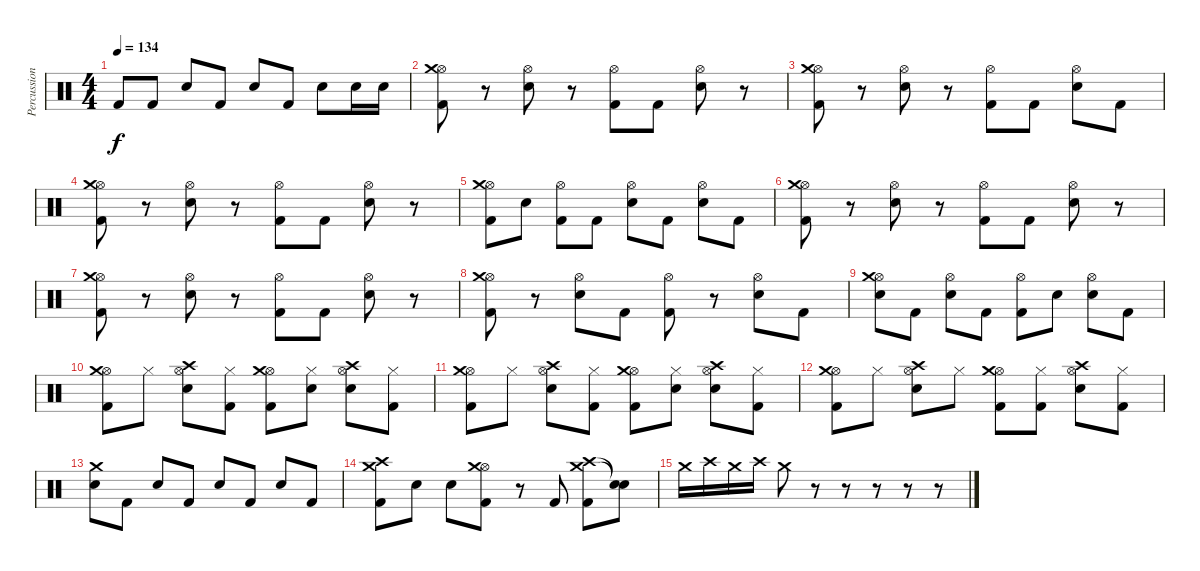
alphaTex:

\track ("Percussion" "Percussion") {instrument percussion}
\staff {score}
\articulation defaults
\ts (4 4)
\tempo 134
\clef neutral
\ks c "Kick (hit) 2".8{dy f} "Kick (hit) 2".8 "Snare (hit) 2".8 "Kick (hit) 2".8 "Snare (hit) 2".8 "Kick (hit) 2".8 "Snare (hit) 2".8 "Snare (hit) 2".16 "Snare (hit) 2".16
|
("Hi-Hat (open)" "Crash medium (hit)" "Kick (hit) 2").8 r.8 ("Hi-Hat (open)" "Snare (hit) 2").8 r.8 ("Hi-Hat (open)" "Kick (hit) 2").8 "Kick (hit) 2".8 ("Hi-Hat (open)" "Snare (hit) 2").8 r.8 |
("Hi-Hat (open)" "Crash medium (hit)" "Kick (hit) 2").8 r.8 ("Hi-Hat (open)" "Snare (hit) 2").8 r.8 ("Hi-Hat (open)" "Kick (hit) 2").8 "Kick (hit) 2".8 ("Hi-Hat (open)" "Snare (hit) 2").8 "Kick (hit) 2".8 |
("Hi-Hat (open)" "Crash medium (hit)" "Kick (hit) 2").8 r.8 ("Hi-Hat (open)" "Snare (hit) 2").8 r.8 ("Hi-Hat (open)" "Kick (hit) 2").8 "Kick (hit) 2".8 ("Hi-Hat (open)" "Snare (hit) 2").8 r.8 |
("Hi-Hat (open)" "Crash medium (hit)" "Kick (hit) 2").8 "Snare (hit) 2".8 ("Hi-Hat (open)" "Kick (hit) 2").8 "Kick (hit) 2".8 ("Hi-Hat (open)" "Snare (hit) 2").8 "Kick (hit) 2".8 ("Hi-Hat (open)" "Snare (hit) 2").8 "Kick (hit) 2".8 |
("Hi-Hat (open)" "Crash medium (hit)" "Kick (hit) 2").8 r.8 ("Hi-Hat (open)" "Snare (hit) 2").8 r.8 ("Hi-Hat (open)" "Kick (hit) 2").8 "Kick (hit) 2".8 ("Hi-Hat (open)" "Snare (hit) 2").8 r.8 |
("Hi-Hat (open)" "Crash medium (hit)" "Kick (hit) 2").8 r.8 ("Hi-Hat (open)" "Snare (hit) 2").8 r.8 ("Hi-Hat (open)" "Kick (hit) 2").8 "Kick (hit) 2".8 ("Hi-Hat (open)" "Snare (hit) 2").8 r.8 |
("Hi-Hat (open)" "Crash medium (hit)" "Kick (hit) 2").8 r.8 ("Hi-Hat (open)" "Snare (hit) 2").8 "Kick (hit) 2".8 ("Hi-Hat (open)" "Kick (hit) 2").8 r.8 ("Hi-Hat (open)" "Snare (hit) 2").8 "Kick (hit) 2".8 |
("Hi-Hat (open)" "Crash medium (hit)" "Snare (hit) 2").8 "Kick (hit) 2".8 ("Hi-Hat (open)" "Snare (hit) 2").8 "Kick (hit) 2".8 ("Hi-Hat (open)" "Kick (hit) 2").8 "Snare (hit) 2".8 ("Hi-Hat (open)" "Snare (hit) 2").8 "Kick (hit) 2".8 |
("Hi-Hat (open)" "Crash medium (hit)" "Kick (hit) 2").8 "Hi-Hat (closed)".8 ("Hi-Hat (open)" "Crash high (hit)" "Snare (hit) 2").8 ("Hi-Hat (closed)" "Kick (hit) 2").8 ("Hi-Hat (open)" "Crash medium (hit)" "Kick (hit) 2").8 ("Hi-Hat (closed)" "Snare (hit) 2").8 ("Hi-Hat (open)" "Crash high (hit)" "Snare (hit) 2").8 ("Hi-Hat (closed)" "Kick (hit) 2").8 |
("Hi-Hat (open)" "Crash medium (hit)" "Kick (hit) 2").8 "Hi-Hat (closed)".8 ("Hi-Hat (open)" "Crash high (hit)" "Snare (hit) 2").8 ("Hi-Hat (closed)" "Kick (hit) 2").8 ("Hi-Hat (open)" "Crash medium (hit)" "Kick (hit) 2").8 ("Hi-Hat (closed)" "Snare (hit) 2").8 ("Hi-Hat (open)" "Crash high (hit)" "Snare (hit) 2").8 ("Hi-Hat (closed)" "Kick (hit) 2").8 |
("Hi-Hat (open)" "Crash medium (hit)" "Kick (hit) 2").8 "Hi-Hat (closed)".8 ("Hi-Hat (open)" "Crash high (hit)" "Snare (hit) 2").8 "Hi-Hat (closed)".8 ("Hi-Hat (open)" "Crash medium (hit)" "Kick (hit) 2").8 ("Hi-Hat (closed)" "Kick (hit) 2").8 ("Hi-Hat (open)" "Crash high (hit)" "Snare (hit) 2").8 ("Hi-Hat (closed)" "Kick (hit) 2").8 |
("Crash medium (hit)" "Snare (hit) 2").8 "Kick (hit) 2".8 "Snare (hit) 2".8 "Kick (hit) 2".8 "Snare (hit) 2".8 "Kick (hit) 2".8 "Snare (hit) 2".8 "Kick (hit) 2".8 |
("Crash high (hit)" "Crash medium (hit)" "Kick (hit) 2").8 "Snare (hit) 2".8 "Snare (hit) 2".8 ("Hi-Hat (open)" "Crash medium (hit)" "Kick (hit) 2").8 r.8 "Kick (hit) 2".8 ("Crash high (hit)" "Crash medium (hit)" "Kick (hit) 2").8 ("Snare (hit)"{t} "Snare (hit)"{t}).8 |
"Crash medium (hit)".16 "Crash high (hit)".16 "Crash medium (hit)".16 "Crash high (hit)".16 "Crash medium (hit)".8 r.8 r.8 r.8 r.8 r.8
